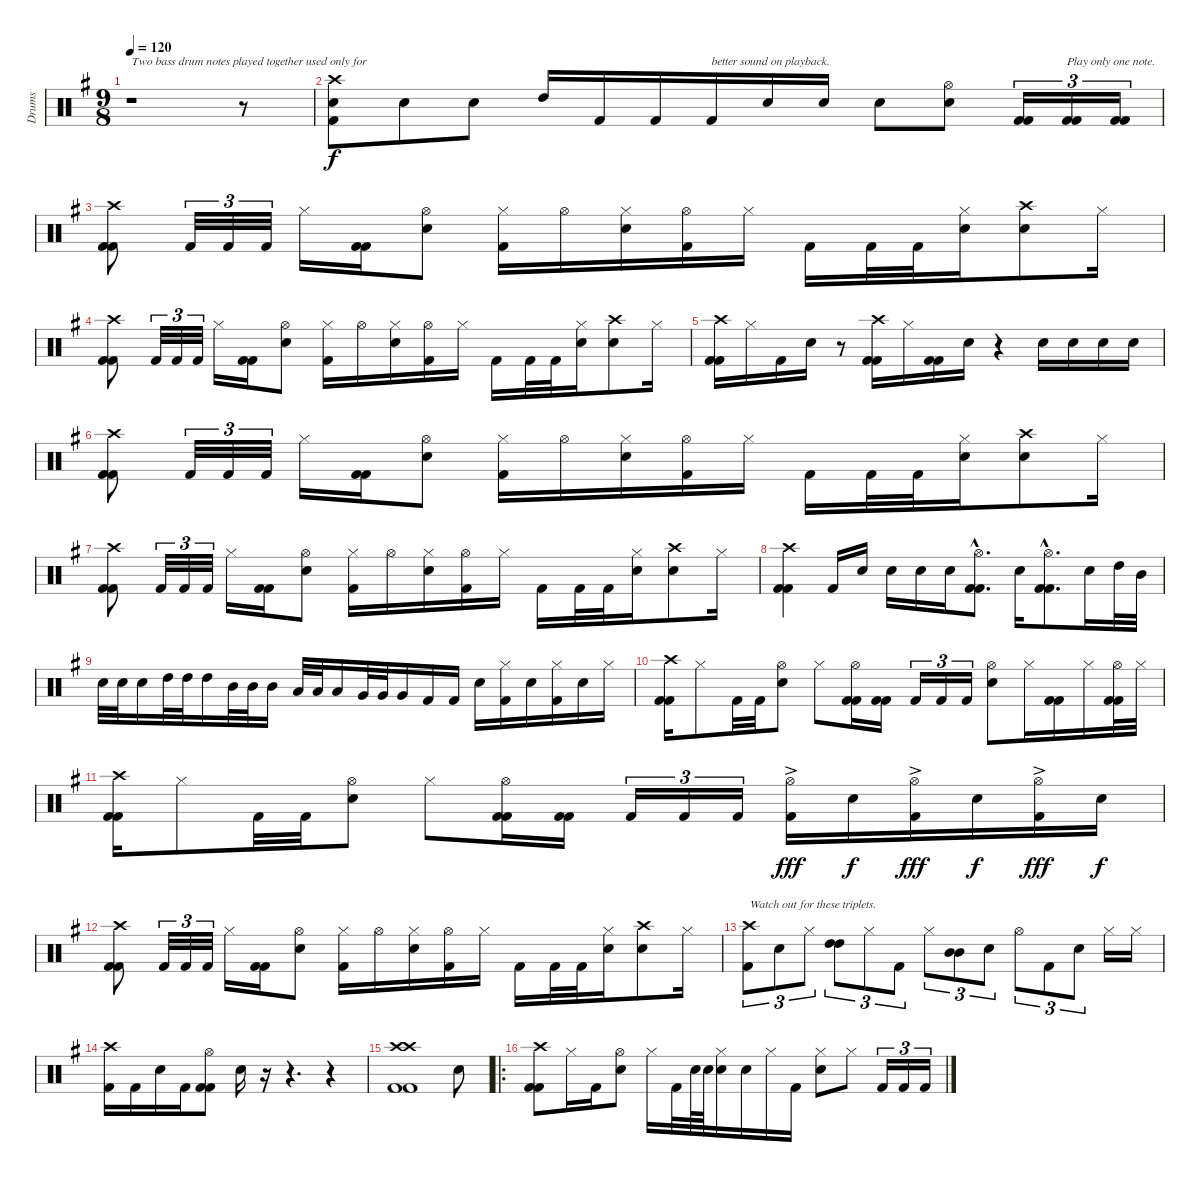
\track ("Drums" "Drums") {instrument percussion}
\staff {score}
\articulation defaults
\ts (9 8)
\tempo 120
\clef neutral
\ks g
r.1{txt "Two bass drum notes played together used only for " dy f} r.8 |
("Crash high (hit)" "Electric Snare (hit)" "Kick (hit) 2").8 "Electric Snare (hit)".8 "Electric Snare (hit)".8 "High Tom (hit)".16 "Kick (hit) 2".16 "Kick (hit) 2".16 "Kick (hit) 2".16{txt "better sound on playback."} "Electric Snare (hit)".16 "Electric Snare (hit)".16 "Electric Snare (hit)".8 ("Hi-Hat (open)" "Electric Snare (hit)").8 ("Kick (hit) 2" "Kick (hit) 2").16{tu (3 2)} ("Kick (hit) 2" "Kick (hit) 2").16{tu (3 2) txt "Play only one note."} ("Kick (hit) 2" "Kick (hit) 2").16{tu (3 2)} |
("Crash high (hit)" "Kick (hit) 2" "Kick (hit) 2").8 "Kick (hit) 2".32{tu (3 2)} "Kick (hit) 2".32{tu (3 2)} "Kick (hit) 2".32{tu (3 2)} "Hi-Hat (closed)".16 ("Kick (hit) 2" "Kick (hit) 2").16 ("Hi-Hat (open)" "Snare (hit) 2").8 ("Hi-Hat (closed)" "Kick (hit) 2").16 "Hi-Hat (open)".16 ("Hi-Hat (closed)" "Snare (hit) 2").16 ("Hi-Hat (open)" "Kick (hit) 2").16 "Hi-Hat (closed)".16 "Kick (hit) 2".16 "Kick (hit) 2".32 "Kick (hit) 2".32 ("Hi-Hat (closed)" "Snare (hit) 2").16 ("Crash high (hit)" "Snare (hit) 2").8 "Hi-Hat (closed)".16 |
("Crash high (hit)" "Kick (hit) 2" "Kick (hit) 2").8 "Kick (hit) 2".32{tu (3 2)} "Kick (hit) 2".32{tu (3 2)} "Kick (hit) 2".32{tu (3 2)} "Hi-Hat (closed)".16 ("Kick (hit) 2" "Kick (hit) 2").16 ("Hi-Hat (open)" "Snare (hit) 2").8 ("Hi-Hat (closed)" "Kick (hit) 2").16 "Hi-Hat (open)".16 ("Hi-Hat (closed)" "Snare (hit) 2").16 ("Hi-Hat (open)" "Kick (hit) 2").16 "Hi-Hat (closed)".16 "Kick (hit) 2".16 "Kick (hit) 2".32 "Kick (hit) 2".32 ("Hi-Hat (closed)" "Snare (hit) 2").16 ("Crash high (hit)" "Snare (hit) 2").8 "Hi-Hat (closed)".16 |
("Crash high (hit)" "Kick (hit) 2" "Kick (hit) 2").16 "Hi-Hat (closed)".16 "Kick (hit) 2".16 "Snare (hit) 2".16 r.8 ("Crash high (hit)" "Kick (hit) 2" "Kick (hit) 2").16 "Hi-Hat (closed)".16 ("Kick (hit) 2" "Kick (hit) 2").16 "Snare (hit) 2".16 r.4 "Snare (hit) 2".16 "Snare (hit) 2".16 "Snare (hit) 2".16 "Snare (hit) 2".16 |
("Crash high (hit)" "Kick (hit) 2" "Kick (hit) 2").8 "Kick (hit) 2".32{tu (3 2)} "Kick (hit) 2".32{tu (3 2)} "Kick (hit) 2".32{tu (3 2)} "Hi-Hat (closed)".16 ("Kick (hit) 2" "Kick (hit) 2").16 ("Hi-Hat (open)" "Snare (hit) 2").8 ("Hi-Hat (closed)" "Kick (hit) 2").16 "Hi-Hat (open)".16 ("Hi-Hat (closed)" "Snare (hit) 2").16 ("Hi-Hat (open)" "Kick (hit) 2").16 "Hi-Hat (closed)".16 "Kick (hit) 2".16 "Kick (hit) 2".32 "Kick (hit) 2".32 ("Hi-Hat (closed)" "Snare (hit) 2").16 ("Crash high (hit)" "Snare (hit) 2").8 "Hi-Hat (closed)".16 |
("Crash high (hit)" "Kick (hit) 2" "Kick (hit) 2").8 "Kick (hit) 2".32{tu (3 2)} "Kick (hit) 2".32{tu (3 2)} "Kick (hit) 2".32{tu (3 2)} "Hi-Hat (closed)".16 ("Kick (hit) 2" "Kick (hit) 2").16 ("Hi-Hat (open)" "Snare (hit) 2").8 ("Hi-Hat (closed)" "Kick (hit) 2").16 "Hi-Hat (open)".16 ("Hi-Hat (closed)" "Snare (hit) 2").16 ("Hi-Hat (open)" "Kick (hit) 2").16 "Hi-Hat (closed)".16 "Kick (hit) 2".16 "Kick (hit) 2".32 "Kick (hit) 2".32 ("Hi-Hat (closed)" "Snare (hit) 2").16 ("Crash high (hit)" "Snare (hit) 2").8 "Hi-Hat (closed)".16 |
("Crash high (hit)" "Kick (hit) 2" "Kick (hit) 2").4 "Kick (hit) 2".16 "Snare (hit) 2".16 "Snare (hit) 2".16 "Snare (hit) 2".16 "Snare (hit) 2".16 ("Hi-Hat (open)"{hac} "Kick (hit) 2"{hac} "Kick (hit) 2"{hac}).8{d} "Snare (hit) 2".16 ("Hi-Hat (open)"{hac} "Kick (hit) 2"{hac} "Kick (hit) 2"{hac}).8{d} "Snare (hit) 2".16 "High Tom (hit)".32 "Mid Tom (hit)".32 |
"Snare (hit) 2".32 "Snare (hit) 2".32 "Snare (hit) 2".16 "High Tom (hit)".32 "High Tom (hit)".32 "High Tom (hit)".16 "Mid Tom (hit)".32 "Mid Tom (hit)".32 "Mid Tom (hit)".16 "Low Tom (hit)".32 "Low Tom (hit)".32 "Low Tom (hit)".16 "Very Low Tom (hit)".32 "Very Low Tom (hit)".32 "Very Low Tom (hit)".16 "Kick (hit) 2".16 "Kick (hit) 2".16 "Snare (hit) 2".16 ("Hi-Hat (closed)" "Kick (hit) 2").16 "Snare (hit) 2".16 ("Hi-Hat (closed)" "Kick (hit) 2").16 "Snare (hit) 2".16 "Hi-Hat (closed)".16 |
("Crash high (hit)" "Kick (hit) 2" "Kick (hit) 2").16 "Hi-Hat (closed)".8 "Kick (hit) 2".32 "Kick (hit) 2".32 ("Hi-Hat (open)" "Snare (hit) 2").8 "Hi-Hat (closed)".8 ("Hi-Hat (open)" "Kick (hit) 2" "Kick (hit) 2").16 ("Kick (hit) 2" "Kick (hit) 2").16 "Kick (hit) 2".16{tu (3 2)} "Kick (hit) 2".16{tu (3 2)} "Kick (hit) 2".16{tu (3 2)} ("Hi-Hat (open)" "Snare (hit) 2").8 "Hi-Hat (closed)".16 ("Kick (hit) 2" "Kick (hit) 2").16 "Hi-Hat (closed)".16 ("Hi-Hat (open)" "Kick (hit) 2" "Kick (hit) 2").32 "Hi-Hat (closed)".32 |
("Crash high (hit)" "Kick (hit) 2" "Kick (hit) 2").16 "Hi-Hat (closed)".8 "Kick (hit) 2".32 "Kick (hit) 2".32 ("Hi-Hat (open)" "Snare (hit) 2").8 "Hi-Hat (closed)".8 ("Hi-Hat (open)" "Kick (hit) 2" "Kick (hit) 2").16 ("Kick (hit) 2" "Kick (hit) 2").16 "Kick (hit) 2".16{tu (3 2)} "Kick (hit) 2".16{tu (3 2)} "Kick (hit) 2".16{tu (3 2)} ("Hi-Hat (open)" "Kick (hit) 2"{ac}).16{dy fff} "Snare (hit) 2".16{dy f} ("Hi-Hat (open)" "Kick (hit) 2"{ac}).16{dy fff} "Snare (hit) 2".16{dy f} ("Hi-Hat (open)" "Kick (hit) 2"{ac}).16{dy fff} "Snare (hit) 2".16{dy f} |
("Crash high (hit)" "Kick (hit) 2" "Kick (hit) 2").8 "Kick (hit) 2".32{tu (3 2)} "Kick (hit) 2".32{tu (3 2)} "Kick (hit) 2".32{tu (3 2)} "Hi-Hat (closed)".16 ("Kick (hit) 2" "Kick (hit) 2").16 ("Hi-Hat (open)" "Snare (hit) 2").8 ("Hi-Hat (closed)" "Kick (hit) 2").16 "Hi-Hat (open)".16 ("Hi-Hat (closed)" "Snare (hit) 2").16 ("Hi-Hat (open)" "Kick (hit) 2").16 "Hi-Hat (closed)".16 "Kick (hit) 2".16 "Kick (hit) 2".32 "Kick (hit) 2".32 ("Hi-Hat (closed)" "Snare (hit) 2").16 ("Crash high (hit)" "Snare (hit) 2").8 "Hi-Hat (closed)".16 |
("Crash high (hit)" "Kick (hit) 2").8{tu (3 2) txt "Watch out for these triplets."} "Snare (hit) 2".8{tu (3 2)} "Hi-Hat (closed)".8{tu (3 2)} ("High Tom (hit)" "High Tom (hit)").8{tu (3 2)} "Hi-Hat (closed)".8{tu (3 2)} "Kick (hit) 2".8{tu (3 2)} "Hi-Hat (closed)".8{tu (3 2)} ("Mid Tom (hit)" "Mid Tom (hit)").8{tu (3 2)} "Snare (hit) 2".8{tu (3 2)} "Hi-Hat (open)".8{tu (3 2)} "Kick (hit) 2".8{tu (3 2)} "Snare (hit) 2".8{tu (3 2)} "Hi-Hat (closed)".16 "Hi-Hat (closed)".16 |
("Crash high (hit)" "Kick (hit) 2").16 "Kick (hit) 2".16 "Snare (hit) 2".16 "Kick (hit) 2".16 ("Hi-Hat (open)" "Kick (hit) 2" "Kick (hit) 2").8 "Snare (hit) 2".16 r.16 r.4{d} r.4 |
("Crash high (hit)" "Crash high (hit)" "Kick (hit) 2" "Kick (hit) 2").1 "Snare (hit) 2".8 |
\ro
("Crash high (hit)" "Kick (hit) 2" "Kick (hit) 2").8 "Hi-Hat (closed)".16 "Kick (hit) 2".16 ("Hi-Hat (open)" "Snare (hit) 2").8 "Hi-Hat (closed)".16 "Kick (hit) 2".32 "Snare (hit) 2".64 "Snare (hit) 2".64 ("Hi-Hat (closed)" "Snare (hit) 2").16 "Snare (hit) 2".16 "Hi-Hat (closed)".16 "Kick (hit) 2".16 ("Hi-Hat (closed)" "Snare (hit) 2").8 "Hi-Hat (closed)".8 "Kick (hit) 2".16{tu (3 2)} "Kick (hit) 2".16{tu (3 2)} "Kick (hit) 2".16{tu (3 2)}
